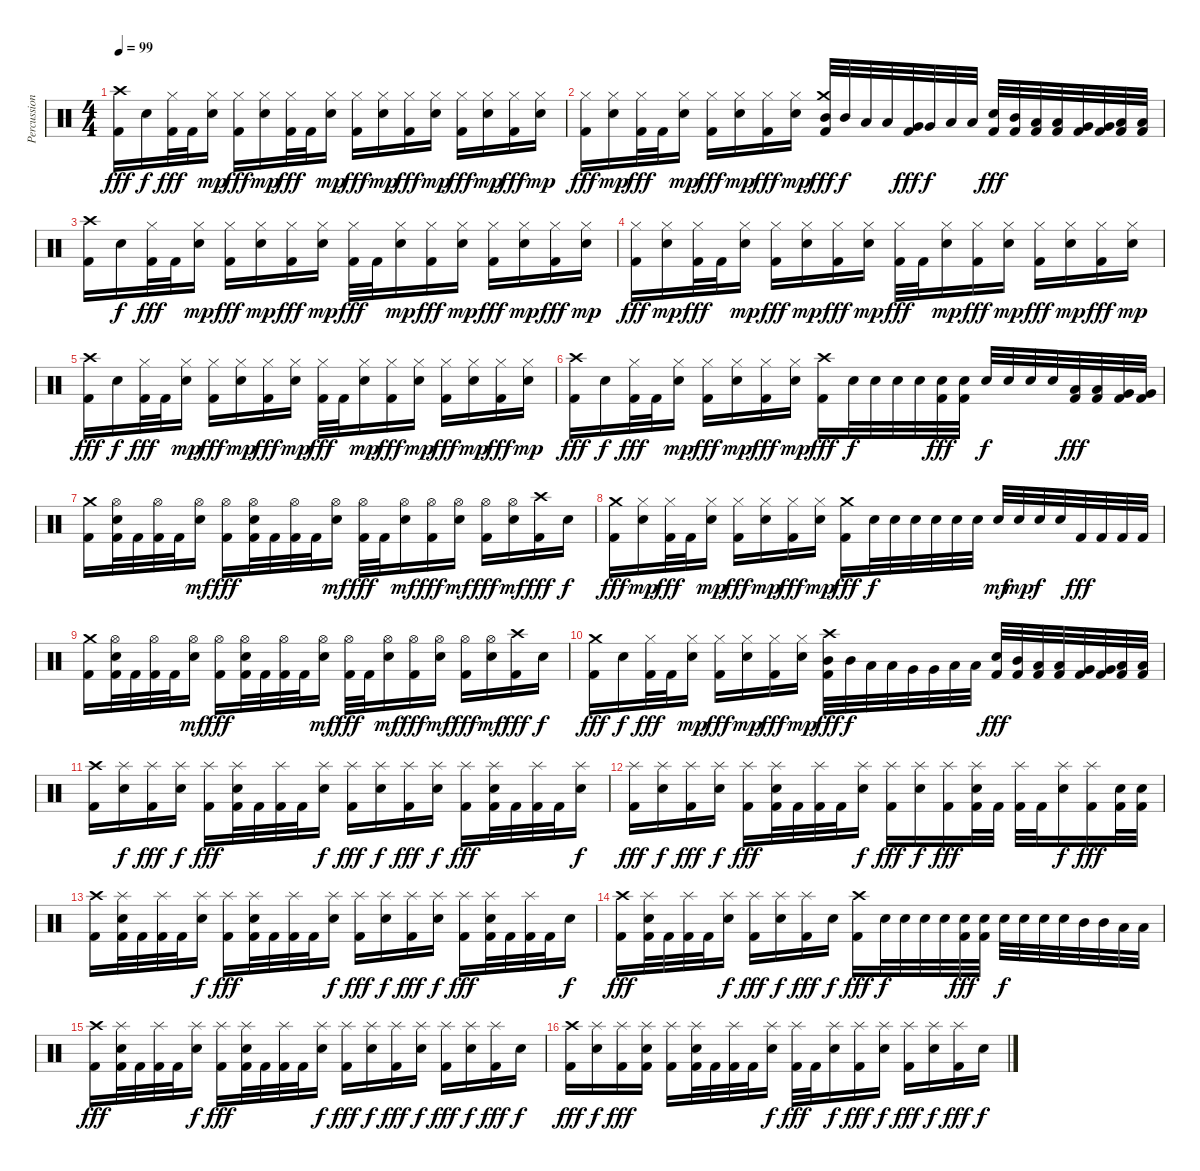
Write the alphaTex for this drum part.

\track ("Percussion" "Percussion") {instrument percussion}
\staff {score}
\articulation defaults
\ts (4 4)
\tempo 99
\clef neutral
\ks c
("Crash high (hit)" "Kick (hit) 2").16{dy fff} "Snare (hit) 2".16{dy f} ("Hi-Hat (closed)" "Kick (hit) 2").32{dy fff} "Kick (hit) 2".32 ("Hi-Hat (closed)" "Snare (hit) 2").16{dy mp} ("Hi-Hat (closed)" "Kick (hit) 2").16{dy fff} ("Hi-Hat (closed)" "Snare (hit) 2").16{dy mp} ("Hi-Hat (closed)" "Kick (hit) 2").32{dy fff} "Kick (hit) 2".32 ("Hi-Hat (closed)" "Snare (hit) 2").16{dy mp} ("Hi-Hat (closed)" "Kick (hit) 2").16{dy fff} ("Hi-Hat (closed)" "Snare (hit) 2").16{dy mp} ("Hi-Hat (closed)" "Kick (hit) 2").16{dy fff} ("Hi-Hat (closed)" "Snare (hit) 2").16{dy mp} ("Hi-Hat (closed)" "Kick (hit) 2").16{dy fff} ("Hi-Hat (closed)" "Snare (hit) 2").16{dy mp} ("Hi-Hat (closed)" "Kick (hit) 2").16{dy fff} ("Hi-Hat (closed)" "Snare (hit) 2").16{dy mp} |
("Hi-Hat (closed)" "Kick (hit) 2").16{dy fff} ("Hi-Hat (closed)" "Snare (hit) 2").16{dy mp} ("Hi-Hat (closed)" "Kick (hit) 2").32{dy fff} "Kick (hit) 2".32 ("Hi-Hat (closed)" "Snare (hit) 2").16{dy mp} ("Hi-Hat (closed)" "Kick (hit) 2").16{dy fff} ("Hi-Hat (closed)" "Snare (hit) 2").16{dy mp} ("Hi-Hat (closed)" "Kick (hit) 2").16{dy fff} ("Hi-Hat (closed)" "Snare (hit) 2").16{dy mp} ("Crash medium (hit)" "Mid Tom (hit)" "Kick (hit) 2").32{dy fff} "Mid Tom (hit)".32{dy f} "Low Tom (hit)".32 "Low Tom (hit)".32 ("Very Low Tom (hit)" "Kick (hit) 2").32{dy fff} "Very Low Tom (hit)".32{dy f} "Low Floor Tom (hit)".32 "Low Floor Tom (hit)".32 ("Snare (hit) 2" "Kick (hit) 2").32{dy fff} ("Mid Tom (hit)" "Kick (hit) 2").32 ("Low Tom (hit)" "Kick (hit) 2").32 ("Low Tom (hit)" "Kick (hit) 2").32 ("Very Low Tom (hit)" "Kick (hit) 2").32 ("Very Low Tom (hit)" "Kick (hit) 2").32 ("Low Floor Tom (hit)" "Kick (hit) 2").32 ("Low Floor Tom (hit)" "Kick (hit) 2").32 |
("Crash high (hit)" "Kick (hit) 2").16 "Snare (hit) 2".16{dy f} ("Hi-Hat (closed)" "Kick (hit) 2").32{dy fff} "Kick (hit) 2".32 ("Hi-Hat (closed)" "Snare (hit) 2").16{dy mp} ("Hi-Hat (closed)" "Kick (hit) 2").16{dy fff} ("Hi-Hat (closed)" "Snare (hit) 2").16{dy mp} ("Hi-Hat (closed)" "Kick (hit) 2").16{dy fff} ("Hi-Hat (closed)" "Snare (hit) 2").16{dy mp} ("Hi-Hat (closed)" "Kick (hit) 2").32{dy fff} "Kick (hit) 2".32 ("Hi-Hat (closed)" "Snare (hit) 2").16{dy mp} ("Hi-Hat (closed)" "Kick (hit) 2").16{dy fff} ("Hi-Hat (closed)" "Snare (hit) 2").16{dy mp} ("Hi-Hat (closed)" "Kick (hit) 2").16{dy fff} ("Hi-Hat (closed)" "Snare (hit) 2").16{dy mp} ("Hi-Hat (closed)" "Kick (hit) 2").16{dy fff} ("Hi-Hat (closed)" "Snare (hit) 2").16{dy mp} |
("Hi-Hat (closed)" "Kick (hit) 2").16{dy fff} ("Hi-Hat (closed)" "Snare (hit) 2").16{dy mp} ("Hi-Hat (closed)" "Kick (hit) 2").32{dy fff} "Kick (hit) 2".32 ("Hi-Hat (closed)" "Snare (hit) 2").16{dy mp} ("Hi-Hat (closed)" "Kick (hit) 2").16{dy fff} ("Hi-Hat (closed)" "Snare (hit) 2").16{dy mp} ("Hi-Hat (closed)" "Kick (hit) 2").16{dy fff} ("Hi-Hat (closed)" "Snare (hit) 2").16{dy mp} ("Hi-Hat (closed)" "Kick (hit) 2").32{dy fff} "Kick (hit) 2".32 ("Hi-Hat (closed)" "Snare (hit) 2").16{dy mp} ("Hi-Hat (closed)" "Kick (hit) 2").16{dy fff} ("Hi-Hat (closed)" "Snare (hit) 2").16{dy mp} ("Hi-Hat (closed)" "Kick (hit) 2").16{dy fff} ("Hi-Hat (closed)" "Snare (hit) 2").16{dy mp} ("Hi-Hat (closed)" "Kick (hit) 2").16{dy fff} ("Hi-Hat (closed)" "Snare (hit) 2").16{dy mp} |
("Crash high (hit)" "Kick (hit) 2").16{dy fff} "Snare (hit) 2".16{dy f} ("Hi-Hat (closed)" "Kick (hit) 2").32{dy fff} "Kick (hit) 2".32 ("Hi-Hat (closed)" "Snare (hit) 2").16{dy mp} ("Hi-Hat (closed)" "Kick (hit) 2").16{dy fff} ("Hi-Hat (closed)" "Snare (hit) 2").16{dy mp} ("Hi-Hat (closed)" "Kick (hit) 2").16{dy fff} ("Hi-Hat (closed)" "Snare (hit) 2").16{dy mp} ("Hi-Hat (closed)" "Kick (hit) 2").32{dy fff} "Kick (hit) 2".32 ("Hi-Hat (closed)" "Snare (hit) 2").16{dy mp} ("Hi-Hat (closed)" "Kick (hit) 2").16{dy fff} ("Hi-Hat (closed)" "Snare (hit) 2").16{dy mp} ("Hi-Hat (closed)" "Kick (hit) 2").16{dy fff} ("Hi-Hat (closed)" "Snare (hit) 2").16{dy mp} ("Hi-Hat (closed)" "Kick (hit) 2").16{dy fff} ("Hi-Hat (closed)" "Snare (hit) 2").16{dy mp} |
("Crash high (hit)" "Kick (hit) 2").16{dy fff} "Snare (hit) 2".16{dy f} ("Hi-Hat (closed)" "Kick (hit) 2").32{dy fff} "Kick (hit) 2".32 ("Hi-Hat (closed)" "Snare (hit) 2").16{dy mp} ("Hi-Hat (closed)" "Kick (hit) 2").16{dy fff} ("Hi-Hat (closed)" "Snare (hit) 2").16{dy mp} ("Hi-Hat (closed)" "Kick (hit) 2").16{dy fff} ("Hi-Hat (closed)" "Snare (hit) 2").16{dy mp} ("Crash high (hit)" "Kick (hit) 2").16{dy fff} "Snare (hit) 2".32{dy f} "Snare (hit) 2".32 "Snare (hit) 2".32 "Snare (hit) 2".32 ("Snare (hit) 2" "Kick (hit) 2").32{dy fff} ("Snare (hit) 2" "Kick (hit) 2").32 "Snare (hit) 2".32{dy f} "Snare (hit) 2".32 "Snare (hit) 2".32 "Snare (hit) 2".32 ("Low Tom (hit)" "Kick (hit) 2").32{dy fff} ("Low Tom (hit)" "Kick (hit) 2").32 ("Very Low Tom (hit)" "Kick (hit) 2").32 ("Very Low Tom (hit)" "Kick (hit) 2").32 |
\section ("" "")
("Crash medium (hit)" "Kick (hit) 2").16 ("Hi-Hat (open)" "Snare (hit) 2" "Kick (hit) 2").32 "Kick (hit) 2".32 ("Hi-Hat (open)" "Kick (hit) 2").32 "Kick (hit) 2".32 ("Hi-Hat (open)" "Snare (hit) 2").16{dy mf} ("Hi-Hat (open)" "Kick (hit) 2").16{dy fff} ("Hi-Hat (open)" "Snare (hit) 2" "Kick (hit) 2").32 "Kick (hit) 2".32 ("Hi-Hat (open)" "Kick (hit) 2").32 "Kick (hit) 2".32 ("Hi-Hat (open)" "Snare (hit) 2").16{dy mf} ("Hi-Hat (open)" "Kick (hit) 2").32{dy fff} "Kick (hit) 2".32 ("Hi-Hat (open)" "Snare (hit) 2").16{dy mf} ("Hi-Hat (open)" "Kick (hit) 2").16{dy fff} ("Hi-Hat (open)" "Snare (hit) 2").16{dy mf} ("Hi-Hat (open)" "Kick (hit) 2").16{dy fff} ("Hi-Hat (open)" "Snare (hit) 2").16{dy mf} ("Crash high (hit)" "Kick (hit) 2").16{dy fff} "Snare (hit) 2".16{dy f} |
("Crash medium (hit)" "Kick (hit) 2").16{dy fff} ("Hi-Hat (closed)" "Snare (hit) 2").16{dy mp} ("Hi-Hat (closed)" "Kick (hit) 2").32{dy fff} "Kick (hit) 2".32 ("Hi-Hat (closed)" "Snare (hit) 2").16{dy mp} ("Hi-Hat (closed)" "Kick (hit) 2").16{dy fff} ("Hi-Hat (closed)" "Snare (hit) 2").16{dy mp} ("Hi-Hat (closed)" "Kick (hit) 2").16{dy fff} ("Hi-Hat (closed)" "Snare (hit) 2").16{dy mp} ("Crash medium (hit)" "Kick (hit) 2").16{dy fff} "Snare (hit) 2".32{dy f} "Snare (hit) 2".32 "Snare (hit) 2".32 "Snare (hit) 2".32 "Snare (hit) 2".32 "Snare (hit) 2".32 "Snare (hit) 2".32{dy mf} "Snare (hit) 2".32{dy mp} "Snare (hit) 2".32{dy f} "Snare (hit) 2".32 "Kick (hit) 2".32{dy fff} "Kick (hit) 2".32 "Kick (hit) 2".32 "Kick (hit) 2".32 |
("Crash medium (hit)" "Kick (hit) 2").16 ("Hi-Hat (open)" "Snare (hit) 2" "Kick (hit) 2").32 "Kick (hit) 2".32 ("Hi-Hat (open)" "Kick (hit) 2").32 "Kick (hit) 2".32 ("Hi-Hat (open)" "Snare (hit) 2").16{dy mf} ("Hi-Hat (open)" "Kick (hit) 2").16{dy fff} ("Hi-Hat (open)" "Snare (hit) 2" "Kick (hit) 2").32 "Kick (hit) 2".32 ("Hi-Hat (open)" "Kick (hit) 2").32 "Kick (hit) 2".32 ("Hi-Hat (open)" "Snare (hit) 2").16{dy mf} ("Hi-Hat (open)" "Kick (hit) 2").32{dy fff} "Kick (hit) 2".32 ("Hi-Hat (open)" "Snare (hit) 2").16{dy mf} ("Hi-Hat (open)" "Kick (hit) 2").16{dy fff} ("Hi-Hat (open)" "Snare (hit) 2").16{dy mf} ("Hi-Hat (open)" "Kick (hit) 2").16{dy fff} ("Hi-Hat (open)" "Snare (hit) 2").16{dy mf} ("Crash high (hit)" "Kick (hit) 2").16{dy fff} "Snare (hit) 2".16{dy f} |
("Crash medium (hit)" "Kick (hit) 2").16{dy fff} "Snare (hit) 2".16{dy f} ("Hi-Hat (closed)" "Kick (hit) 2").32{dy fff} "Kick (hit) 2".32 ("Hi-Hat (closed)" "Snare (hit) 2").16{dy mp} ("Hi-Hat (closed)" "Kick (hit) 2").16{dy fff} ("Hi-Hat (closed)" "Snare (hit) 2").16{dy mp} ("Hi-Hat (closed)" "Kick (hit) 2").16{dy fff} ("Hi-Hat (closed)" "Snare (hit) 2").16{dy mp} ("Crash high (hit)" "Mid Tom (hit)" "Kick (hit) 2").32{dy fff} "Mid Tom (hit)".32{dy f} "Low Tom (hit)".32 "Low Tom (hit)".32 "Very Low Tom (hit)".32 "Very Low Tom (hit)".32 "Low Floor Tom (hit)".32 "Low Floor Tom (hit)".32 ("Snare (hit) 2" "Kick (hit) 2").32{dy fff} ("Mid Tom (hit)" "Kick (hit) 2").32 ("Low Tom (hit)" "Kick (hit) 2").32 ("Low Tom (hit)" "Kick (hit) 2").32 ("Very Low Tom (hit)" "Kick (hit) 2").32 ("Very Low Tom (hit)" "Kick (hit) 2").32 ("Low Floor Tom (hit)" "Kick (hit) 2").32 ("Low Floor Tom (hit)" "Kick (hit) 2").32 |
\section ("" "")
("Crash high (hit)" "Kick (hit) 2").16 ("Splash (hit)" "Snare (hit) 2").16{dy f} ("Splash (hit)" "Kick (hit) 2").16{dy fff} ("Splash (hit)" "Snare (hit) 2").16{dy f} ("Splash (hit)" "Kick (hit) 2").16{dy fff} ("Splash (hit)" "Snare (hit) 2" "Kick (hit) 2").32 "Kick (hit) 2".32 ("Splash (hit)" "Kick (hit) 2").32 "Kick (hit) 2".32 ("Splash (hit)" "Snare (hit) 2").16{dy f} ("Splash (hit)" "Kick (hit) 2").16{dy fff} ("Splash (hit)" "Snare (hit) 2").16{dy f} ("Splash (hit)" "Kick (hit) 2").16{dy fff} ("Splash (hit)" "Snare (hit) 2").16{dy f} ("Splash (hit)" "Kick (hit) 2").16{dy fff} ("Splash (hit)" "Snare (hit) 2" "Kick (hit) 2").32 "Kick (hit) 2".32 ("Splash (hit)" "Kick (hit) 2").32 "Kick (hit) 2".32 ("Splash (hit)" "Snare (hit) 2").16{dy f} |
("Splash (hit)" "Kick (hit) 2").16{dy fff} ("Splash (hit)" "Snare (hit) 2").16{dy f} ("Splash (hit)" "Kick (hit) 2").16{dy fff} ("Splash (hit)" "Snare (hit) 2").16{dy f} ("Splash (hit)" "Kick (hit) 2").16{dy fff} ("Splash (hit)" "Snare (hit) 2" "Kick (hit) 2").32 "Kick (hit) 2".32 ("Splash (hit)" "Kick (hit) 2").32 "Kick (hit) 2".32 ("Splash (hit)" "Snare (hit) 2").16{dy f} ("Splash (hit)" "Kick (hit) 2").16{dy fff} ("Splash (hit)" "Snare (hit) 2").16{dy f} ("Splash (hit)" "Kick (hit) 2").16{dy fff} ("Splash (hit)" "Snare (hit) 2" "Kick (hit) 2").32 "Kick (hit) 2".32 ("Splash (hit)" "Kick (hit) 2").32 "Kick (hit) 2".32 ("Splash (hit)" "Snare (hit) 2").16{dy f} ("Splash (hit)" "Kick (hit) 2").16{dy fff} ("Snare (hit) 2" "Kick (hit) 2").32 ("Snare (hit) 2" "Kick (hit) 2").32 |
("Crash high (hit)" "Kick (hit) 2").16 ("Splash (hit)" "Snare (hit) 2" "Kick (hit) 2").32 "Kick (hit) 2".32 ("Splash (hit)" "Kick (hit) 2").32 "Kick (hit) 2".32 ("Splash (hit)" "Snare (hit) 2").16{dy f} ("Splash (hit)" "Kick (hit) 2").16{dy fff} ("Splash (hit)" "Snare (hit) 2" "Kick (hit) 2").32 "Kick (hit) 2".32 ("Splash (hit)" "Kick (hit) 2").32 "Kick (hit) 2".32 ("Splash (hit)" "Snare (hit) 2").16{dy f} ("Splash (hit)" "Kick (hit) 2").16{dy fff} ("Splash (hit)" "Snare (hit) 2").16{dy f} ("Splash (hit)" "Kick (hit) 2").16{dy fff} ("Splash (hit)" "Snare (hit) 2").16{dy f} ("Splash (hit)" "Kick (hit) 2").16{dy fff} ("Splash (hit)" "Snare (hit) 2" "Kick (hit) 2").32 "Kick (hit) 2".32 ("Splash (hit)" "Kick (hit) 2").32 "Kick (hit) 2".32 "Snare (hit) 2".16{dy f} |
("Crash high (hit)" "Kick (hit) 2").16{dy fff} ("Splash (hit)" "Snare (hit) 2" "Kick (hit) 2").32 "Kick (hit) 2".32 ("Splash (hit)" "Kick (hit) 2").32 "Kick (hit) 2".32 ("Splash (hit)" "Snare (hit) 2").16{dy f} ("Splash (hit)" "Kick (hit) 2").16{dy fff} ("Splash (hit)" "Snare (hit) 2").16{dy f} ("Splash (hit)" "Kick (hit) 2").16{dy fff} "Snare (hit) 2".16{dy f} ("Crash high (hit)" "Kick (hit) 2").16{dy fff} "Snare (hit) 2".32{dy f} "Snare (hit) 2".32 "Snare (hit) 2".32 "Snare (hit) 2".32 ("Snare (hit) 2" "Kick (hit) 2").32{dy fff} ("Snare (hit) 2" "Kick (hit) 2").32 "Snare (hit) 2".32{dy f} "Snare (hit) 2".32 "Snare (hit) 2".32 "Snare (hit) 2".32 "Mid Tom (hit)".32 "Mid Tom (hit)".32 "Low Tom (hit)".32 "Low Tom (hit)".32 |
("Crash high (hit)" "Kick (hit) 2").16{dy fff} ("Splash (hit)" "Snare (hit) 2" "Kick (hit) 2").32 "Kick (hit) 2".32 ("Splash (hit)" "Kick (hit) 2").32 "Kick (hit) 2".32 ("Splash (hit)" "Snare (hit) 2").16{dy f} ("Splash (hit)" "Kick (hit) 2").16{dy fff} ("Splash (hit)" "Snare (hit) 2" "Kick (hit) 2").32 "Kick (hit) 2".32 ("Splash (hit)" "Kick (hit) 2").32 "Kick (hit) 2".32 ("Splash (hit)" "Snare (hit) 2").16{dy f} ("Splash (hit)" "Kick (hit) 2").16{dy fff} ("Splash (hit)" "Snare (hit) 2").16{dy f} ("Splash (hit)" "Kick (hit) 2").16{dy fff} ("Splash (hit)" "Snare (hit) 2").16{dy f} ("Splash (hit)" "Kick (hit) 2").16{dy fff} ("Splash (hit)" "Snare (hit) 2").16{dy f} ("Splash (hit)" "Kick (hit) 2").16{dy fff} "Snare (hit) 2".16{dy f} |
("Crash high (hit)" "Kick (hit) 2").16{dy fff} ("Splash (hit)" "Snare (hit) 2").16{dy f} ("Splash (hit)" "Kick (hit) 2").16{dy fff} ("Splash (hit)" "Snare (hit) 2" "Kick (hit) 2").16 ("Splash (hit)" "Kick (hit) 2").16 ("Splash (hit)" "Snare (hit) 2" "Kick (hit) 2").32 "Kick (hit) 2".32 ("Splash (hit)" "Kick (hit) 2").32 "Kick (hit) 2".32 ("Splash (hit)" "Snare (hit) 2").16{dy f} ("Splash (hit)" "Kick (hit) 2").32{dy fff} "Kick (hit) 2".32 ("Splash (hit)" "Snare (hit) 2").16{dy f} ("Splash (hit)" "Kick (hit) 2").16{dy fff} ("Splash (hit)" "Snare (hit) 2").16{dy f} ("Splash (hit)" "Kick (hit) 2").16{dy fff} ("Splash (hit)" "Snare (hit) 2").16{dy f} ("Splash (hit)" "Kick (hit) 2").16{dy fff} "Snare (hit) 2".16{dy f}
